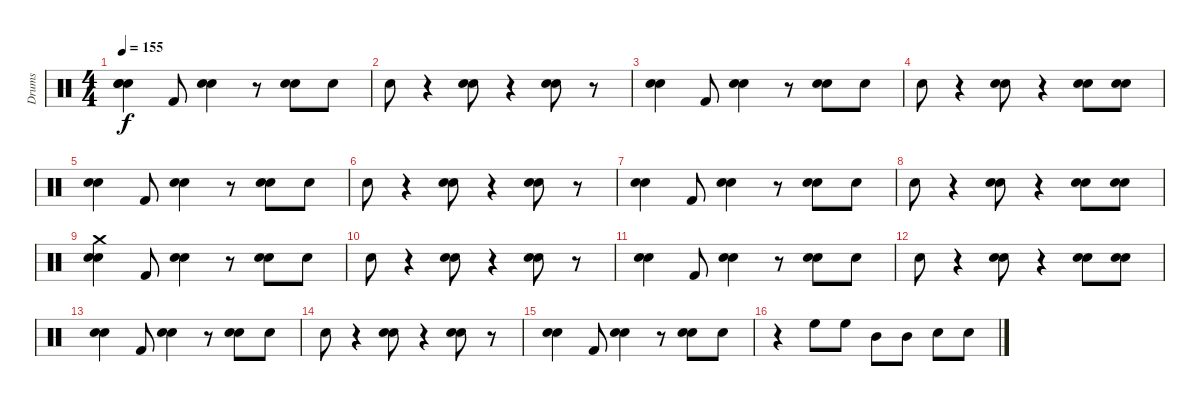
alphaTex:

\track ("Drums" "Drums") {instrument percussion}
\staff {score}
\articulation defaults
\ts (4 4)
\tempo 155
\clef neutral
\ks c
("Snare (hit) 2" "Hand Clap (hit)" "Snare (hit)").4{dy f} "Kick (hit) 2".8 ("Snare (hit) 2" "Hand Clap (hit)").4 r.8 ("Snare (hit) 2" "Hand Clap (hit)").8 "Snare (hit) 2".8 |
"Snare (hit) 2".8 r.4 ("Snare (hit) 2" "Hand Clap (hit)").8 r.4 ("Snare (hit) 2" "Hand Clap (hit)").8 r.8 |
("Snare (hit) 2" "Hand Clap (hit)").4 "Kick (hit) 2".8 ("Snare (hit) 2" "Hand Clap (hit)").4 r.8 ("Snare (hit) 2" "Hand Clap (hit)").8 "Snare (hit) 2".8 |
"Snare (hit) 2".8 r.4 ("Snare (hit) 2" "Hand Clap (hit)").8 r.4 ("Snare (hit) 2" "Hand Clap (hit)").8 ("Snare (hit) 2" "Hand Clap (hit)").8 |
("Snare (hit) 2" "Hand Clap (hit)").4 "Kick (hit) 2".8 ("Snare (hit) 2" "Hand Clap (hit)").4 r.8 ("Snare (hit) 2" "Hand Clap (hit)").8 "Snare (hit) 2".8 |
"Snare (hit) 2".8 r.4 ("Snare (hit) 2" "Hand Clap (hit)").8 r.4 ("Snare (hit) 2" "Hand Clap (hit)").8 r.8 |
("Snare (hit) 2" "Hand Clap (hit)").4 "Kick (hit) 2".8 ("Snare (hit) 2" "Hand Clap (hit)").4 r.8 ("Snare (hit) 2" "Hand Clap (hit)").8 "Snare (hit) 2".8 |
"Snare (hit) 2".8 r.4 ("Snare (hit) 2" "Hand Clap (hit)").8 r.4 ("Snare (hit) 2" "Hand Clap (hit)").8 ("Snare (hit) 2" "Hand Clap (hit)").8 |
("Snare (hit) 2" "Hand Clap (hit)" "Crash medium (hit)").4 "Kick (hit) 2".8 ("Snare (hit) 2" "Hand Clap (hit)").4 r.8 ("Snare (hit) 2" "Hand Clap (hit)").8 "Snare (hit) 2".8 |
"Snare (hit) 2".8 r.4 ("Snare (hit) 2" "Hand Clap (hit)").8 r.4 ("Snare (hit) 2" "Hand Clap (hit)").8 r.8 |
("Snare (hit) 2" "Hand Clap (hit)").4 "Kick (hit) 2".8 ("Snare (hit) 2" "Hand Clap (hit)").4 r.8 ("Snare (hit) 2" "Hand Clap (hit)").8 "Snare (hit) 2".8 |
"Snare (hit) 2".8 r.4 ("Snare (hit) 2" "Hand Clap (hit)").8 r.4 ("Snare (hit) 2" "Hand Clap (hit)").8 ("Snare (hit) 2" "Hand Clap (hit)").8 |
("Snare (hit) 2" "Hand Clap (hit)").4 "Kick (hit) 2".8 ("Snare (hit) 2" "Hand Clap (hit)").4 r.8 ("Snare (hit) 2" "Hand Clap (hit)").8 "Snare (hit) 2".8 |
"Snare (hit) 2".8 r.4 ("Snare (hit) 2" "Hand Clap (hit)").8 r.4 ("Snare (hit) 2" "Hand Clap (hit)").8 r.8 |
("Snare (hit) 2" "Hand Clap (hit)").4 "Kick (hit) 2".8 ("Snare (hit) 2" "Hand Clap (hit)").4 r.8 ("Snare (hit) 2" "Hand Clap (hit)").8 "Snare (hit) 2".8 |
r.4 "High Floor Tom (hit)".8 "High Floor Tom (hit)".8 "Mid Tom (hit)".8 "Mid Tom (hit)".8 "Snare (hit) 2".8 "Snare (hit) 2".8
